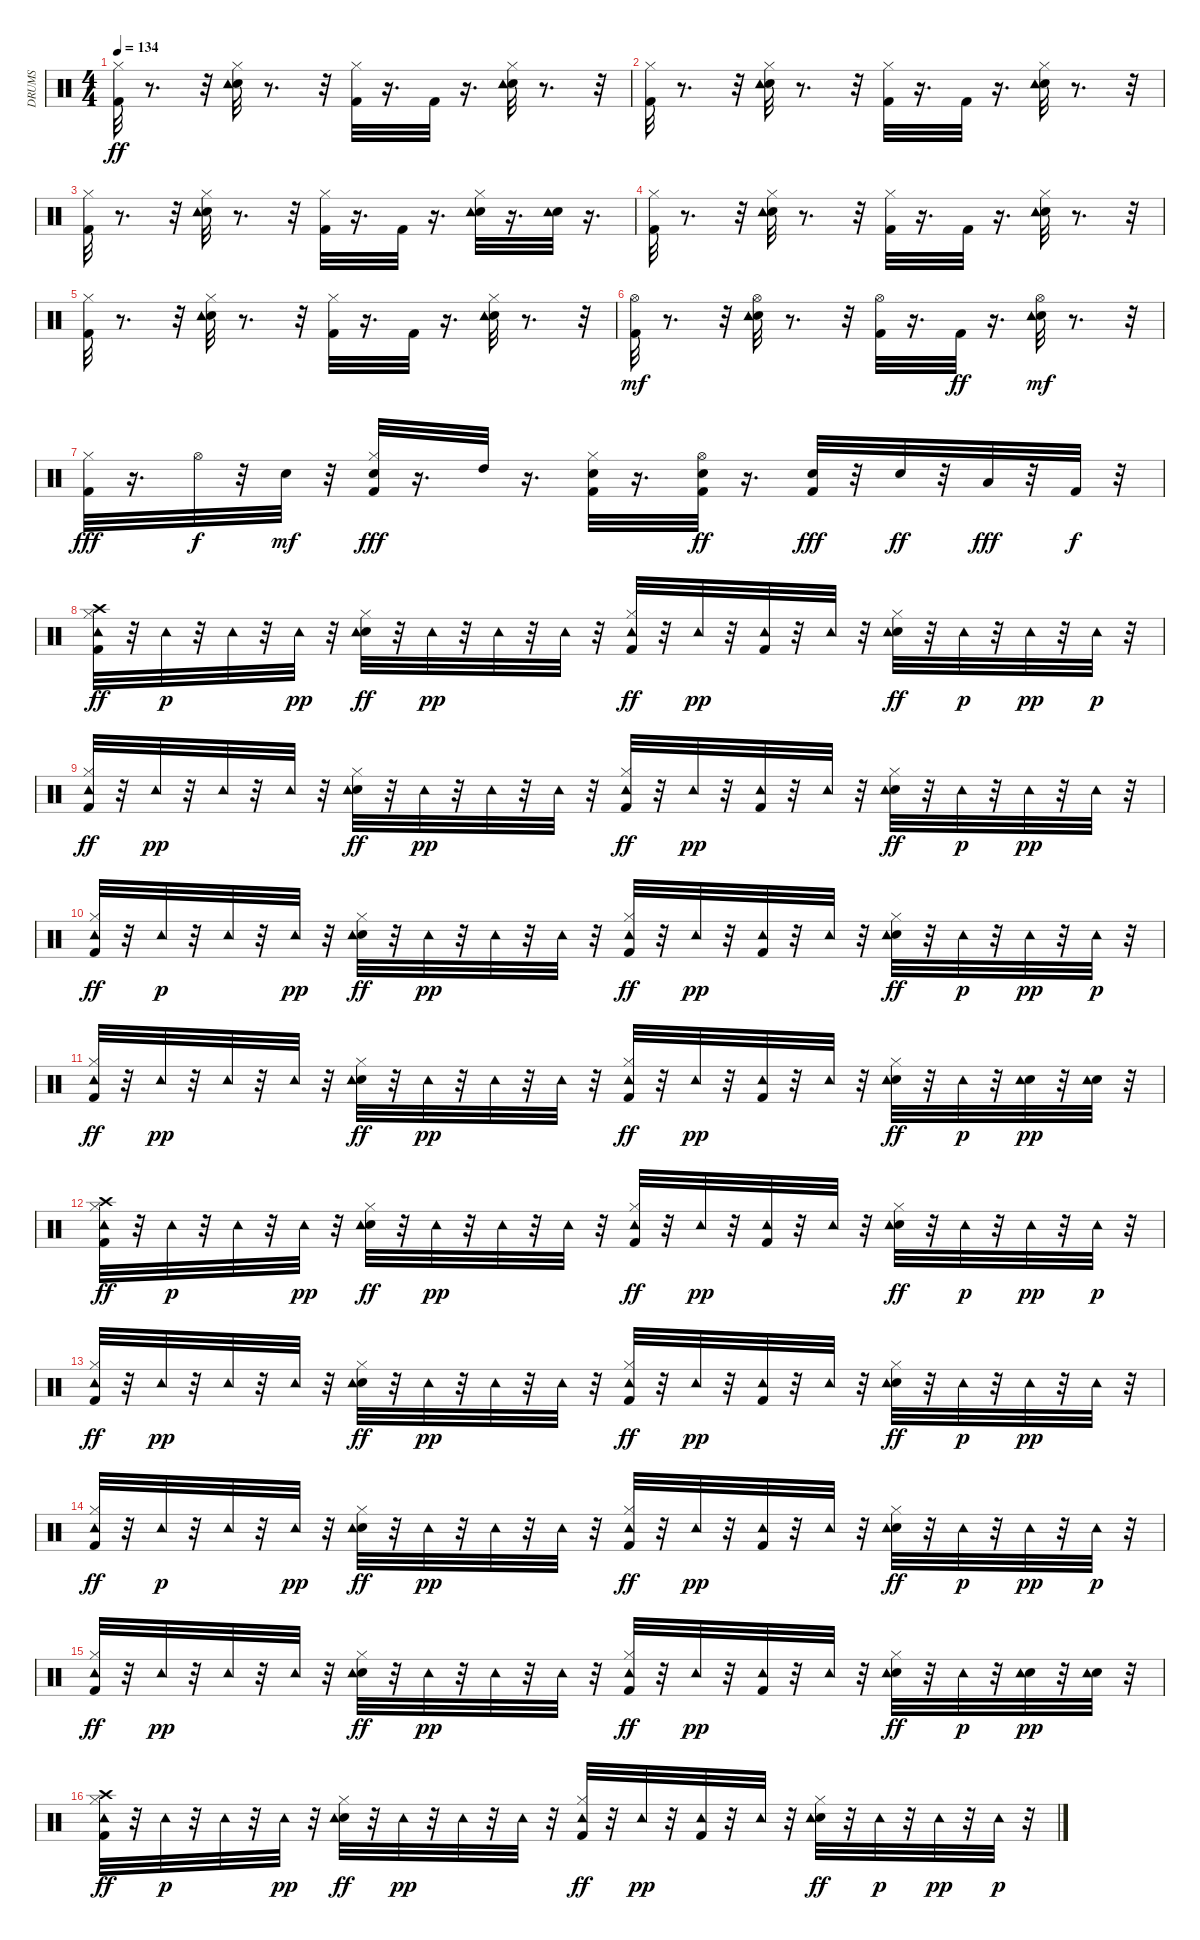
\track ("DRUMS" "DRUMS") {instrument percussion}
\staff {score}
\articulation defaults
\ts (4 4)
\tempo 134
\clef neutral
\ks c
("Kick (hit) 2" "Hi-Hat (closed)").32{dy ff} r.8{d} r.32 ("Snare (hit) 2" "Hi-Hat (closed)" "Tambourine (hit)").32 r.8{d} r.32 ("Kick (hit) 2" "Hi-Hat (closed)").32 r.16{d} "Kick (hit) 2".32 r.16{d} ("Snare (hit) 2" "Hi-Hat (closed)" "Tambourine (hit)").32 r.8{d} r.32 |
("Kick (hit) 2" "Hi-Hat (closed)").32 r.8{d} r.32 ("Snare (hit) 2" "Hi-Hat (closed)" "Tambourine (hit)").32 r.8{d} r.32 ("Kick (hit) 2" "Hi-Hat (closed)").32 r.16{d} "Kick (hit) 2".32 r.16{d} ("Snare (hit) 2" "Hi-Hat (closed)" "Tambourine (hit)").32 r.8{d} r.32 |
("Kick (hit) 2" "Hi-Hat (closed)").32 r.8{d} r.32 ("Snare (hit) 2" "Hi-Hat (closed)" "Tambourine (hit)").32 r.8{d} r.32 ("Kick (hit) 2" "Hi-Hat (closed)").32 r.16{d} "Kick (hit) 2".32 r.16{d} ("Snare (hit) 2" "Hi-Hat (closed)" "Tambourine (hit)").32 r.16{d} ("Snare (hit) 2" "Tambourine (hit)").32 r.16{d} |
("Kick (hit) 2" "Hi-Hat (closed)").32 r.8{d} r.32 ("Snare (hit) 2" "Hi-Hat (closed)" "Tambourine (hit)").32 r.8{d} r.32 ("Kick (hit) 2" "Hi-Hat (closed)").32 r.16{d} "Kick (hit) 2".32 r.16{d} ("Snare (hit) 2" "Hi-Hat (closed)" "Tambourine (hit)").32 r.8{d} r.32 |
("Kick (hit) 2" "Hi-Hat (closed)").32 r.8{d} r.32 ("Snare (hit) 2" "Hi-Hat (closed)" "Tambourine (hit)").32 r.8{d} r.32 ("Kick (hit) 2" "Hi-Hat (closed)").32 r.16{d} "Kick (hit) 2".32 r.16{d} ("Snare (hit) 2" "Hi-Hat (closed)" "Tambourine (hit)").32 r.8{d} r.32 |
("Kick (hit) 2" "Hi-Hat (open)").32{dy mf} r.8{d} r.32 ("Snare (hit) 2" "Hi-Hat (open)" "Tambourine (hit)").32 r.8{d} r.32 ("Kick (hit) 2" "Hi-Hat (open)").32 r.16{d} "Kick (hit) 2".32{dy ff} r.16{d} ("Snare (hit) 2" "Hi-Hat (open)" "Tambourine (hit)").32{dy mf} r.8{d} r.32 |
("Kick (hit) 2" "Hi-Hat (closed)").32{dy fff} r.16{d} "Hi-Hat (open)".32{dy f} r.32 "Snare (hit) 2".32{dy mf} r.32 ("Kick (hit) 2" "Snare (hit) 2" "Hi-Hat (closed)").32{dy fff} r.16{d} "High Tom (hit)".32 r.16{d} ("Kick (hit) 2" "Snare (hit) 2" "Hi-Hat (closed)").32 r.16{d} ("Kick (hit) 2" "Snare (hit) 2" "Hi-Hat (open)").32{dy ff} r.16{d} ("Kick (hit) 2" "Snare (hit) 2").32{dy fff} r.32 "Snare (hit) 2".32{dy ff} r.32 "Low Floor Tom (hit)".32{dy fff} r.32 "Kick (hit) 2".32{dy f} r.32 |
("Kick (hit) 2" "Hi-Hat (closed)" "Crash high (hit)" "Tambourine (hit)").32{dy ff} r.32 "Tambourine (hit)".32{dy p} r.32 "Tambourine (hit)".32 r.32 "Tambourine (hit)".32{dy pp} r.32 ("Snare (hit) 2" "Hi-Hat (closed)" "Tambourine (hit)").32{dy ff} r.32 "Tambourine (hit)".32{dy pp} r.32 "Tambourine (hit)".32 r.32 "Tambourine (hit)".32 r.32 ("Kick (hit) 2" "Hi-Hat (closed)" "Tambourine (hit)").32{dy ff} r.32 "Tambourine (hit)".32{dy pp} r.32 ("Kick (hit) 2" "Tambourine (hit)").32 r.32 "Tambourine (hit)".32 r.32 ("Snare (hit) 2" "Hi-Hat (closed)" "Tambourine (hit)").32{dy ff} r.32 "Tambourine (hit)".32{dy p} r.32 "Tambourine (hit)".32{dy pp} r.32 "Tambourine (hit)".32{dy p} r.32 |
("Kick (hit) 2" "Hi-Hat (closed)" "Tambourine (hit)").32{dy ff} r.32 "Tambourine (hit)".32{dy pp} r.32 "Tambourine (hit)".32 r.32 "Tambourine (hit)".32 r.32 ("Snare (hit) 2" "Hi-Hat (closed)" "Tambourine (hit)").32{dy ff} r.32 "Tambourine (hit)".32{dy pp} r.32 "Tambourine (hit)".32 r.32 "Tambourine (hit)".32 r.32 ("Kick (hit) 2" "Hi-Hat (closed)" "Tambourine (hit)").32{dy ff} r.32 "Tambourine (hit)".32{dy pp} r.32 ("Kick (hit) 2" "Tambourine (hit)").32 r.32 "Tambourine (hit)".32 r.32 ("Snare (hit) 2" "Hi-Hat (closed)" "Tambourine (hit)").32{dy ff} r.32 "Tambourine (hit)".32{dy p} r.32 "Tambourine (hit)".32{dy pp} r.32 "Tambourine (hit)".32 r.32 |
("Kick (hit) 2" "Hi-Hat (closed)" "Tambourine (hit)").32{dy ff} r.32 "Tambourine (hit)".32{dy p} r.32 "Tambourine (hit)".32 r.32 "Tambourine (hit)".32{dy pp} r.32 ("Snare (hit) 2" "Hi-Hat (closed)" "Tambourine (hit)").32{dy ff} r.32 "Tambourine (hit)".32{dy pp} r.32 "Tambourine (hit)".32 r.32 "Tambourine (hit)".32 r.32 ("Kick (hit) 2" "Hi-Hat (closed)" "Tambourine (hit)").32{dy ff} r.32 "Tambourine (hit)".32{dy pp} r.32 ("Kick (hit) 2" "Tambourine (hit)").32 r.32 "Tambourine (hit)".32 r.32 ("Snare (hit) 2" "Hi-Hat (closed)" "Tambourine (hit)").32{dy ff} r.32 "Tambourine (hit)".32{dy p} r.32 "Tambourine (hit)".32{dy pp} r.32 "Tambourine (hit)".32{dy p} r.32 |
("Kick (hit) 2" "Hi-Hat (closed)" "Tambourine (hit)").32{dy ff} r.32 "Tambourine (hit)".32{dy pp} r.32 "Tambourine (hit)".32 r.32 "Tambourine (hit)".32 r.32 ("Snare (hit) 2" "Hi-Hat (closed)" "Tambourine (hit)").32{dy ff} r.32 "Tambourine (hit)".32{dy pp} r.32 "Tambourine (hit)".32 r.32 "Tambourine (hit)".32 r.32 ("Kick (hit) 2" "Hi-Hat (closed)" "Tambourine (hit)").32{dy ff} r.32 "Tambourine (hit)".32{dy pp} r.32 ("Kick (hit) 2" "Tambourine (hit)").32 r.32 "Tambourine (hit)".32 r.32 ("Snare (hit) 2" "Hi-Hat (closed)" "Tambourine (hit)").32{dy ff} r.32 "Tambourine (hit)".32{dy p} r.32 ("Snare (hit) 2" "Tambourine (hit)").32{dy pp} r.32 ("Snare (hit) 2" "Tambourine (hit)").32 r.32 |
("Kick (hit) 2" "Hi-Hat (closed)" "Crash high (hit)" "Tambourine (hit)").32{dy ff} r.32 "Tambourine (hit)".32{dy p} r.32 "Tambourine (hit)".32 r.32 "Tambourine (hit)".32{dy pp} r.32 ("Snare (hit) 2" "Hi-Hat (closed)" "Tambourine (hit)").32{dy ff} r.32 "Tambourine (hit)".32{dy pp} r.32 "Tambourine (hit)".32 r.32 "Tambourine (hit)".32 r.32 ("Kick (hit) 2" "Hi-Hat (closed)" "Tambourine (hit)").32{dy ff} r.32 "Tambourine (hit)".32{dy pp} r.32 ("Kick (hit) 2" "Tambourine (hit)").32 r.32 "Tambourine (hit)".32 r.32 ("Snare (hit) 2" "Hi-Hat (closed)" "Tambourine (hit)").32{dy ff} r.32 "Tambourine (hit)".32{dy p} r.32 "Tambourine (hit)".32{dy pp} r.32 "Tambourine (hit)".32{dy p} r.32 |
("Kick (hit) 2" "Hi-Hat (closed)" "Tambourine (hit)").32{dy ff} r.32 "Tambourine (hit)".32{dy pp} r.32 "Tambourine (hit)".32 r.32 "Tambourine (hit)".32 r.32 ("Snare (hit) 2" "Hi-Hat (closed)" "Tambourine (hit)").32{dy ff} r.32 "Tambourine (hit)".32{dy pp} r.32 "Tambourine (hit)".32 r.32 "Tambourine (hit)".32 r.32 ("Kick (hit) 2" "Hi-Hat (closed)" "Tambourine (hit)").32{dy ff} r.32 "Tambourine (hit)".32{dy pp} r.32 ("Kick (hit) 2" "Tambourine (hit)").32 r.32 "Tambourine (hit)".32 r.32 ("Snare (hit) 2" "Hi-Hat (closed)" "Tambourine (hit)").32{dy ff} r.32 "Tambourine (hit)".32{dy p} r.32 "Tambourine (hit)".32{dy pp} r.32 "Tambourine (hit)".32 r.32 |
("Kick (hit) 2" "Hi-Hat (closed)" "Tambourine (hit)").32{dy ff} r.32 "Tambourine (hit)".32{dy p} r.32 "Tambourine (hit)".32 r.32 "Tambourine (hit)".32{dy pp} r.32 ("Snare (hit) 2" "Hi-Hat (closed)" "Tambourine (hit)").32{dy ff} r.32 "Tambourine (hit)".32{dy pp} r.32 "Tambourine (hit)".32 r.32 "Tambourine (hit)".32 r.32 ("Kick (hit) 2" "Hi-Hat (closed)" "Tambourine (hit)").32{dy ff} r.32 "Tambourine (hit)".32{dy pp} r.32 ("Kick (hit) 2" "Tambourine (hit)").32 r.32 "Tambourine (hit)".32 r.32 ("Snare (hit) 2" "Hi-Hat (closed)" "Tambourine (hit)").32{dy ff} r.32 "Tambourine (hit)".32{dy p} r.32 "Tambourine (hit)".32{dy pp} r.32 "Tambourine (hit)".32{dy p} r.32 |
("Kick (hit) 2" "Hi-Hat (closed)" "Tambourine (hit)").32{dy ff} r.32 "Tambourine (hit)".32{dy pp} r.32 "Tambourine (hit)".32 r.32 "Tambourine (hit)".32 r.32 ("Snare (hit) 2" "Hi-Hat (closed)" "Tambourine (hit)").32{dy ff} r.32 "Tambourine (hit)".32{dy pp} r.32 "Tambourine (hit)".32 r.32 "Tambourine (hit)".32 r.32 ("Kick (hit) 2" "Hi-Hat (closed)" "Tambourine (hit)").32{dy ff} r.32 "Tambourine (hit)".32{dy pp} r.32 ("Kick (hit) 2" "Tambourine (hit)").32 r.32 "Tambourine (hit)".32 r.32 ("Snare (hit) 2" "Hi-Hat (closed)" "Tambourine (hit)").32{dy ff} r.32 "Tambourine (hit)".32{dy p} r.32 ("Snare (hit) 2" "Tambourine (hit)").32{dy pp} r.32 ("Snare (hit) 2" "Tambourine (hit)").32 r.32 |
("Kick (hit) 2" "Hi-Hat (closed)" "Crash high (hit)" "Tambourine (hit)").32{dy ff} r.32 "Tambourine (hit)".32{dy p} r.32 "Tambourine (hit)".32 r.32 "Tambourine (hit)".32{dy pp} r.32 ("Snare (hit) 2" "Hi-Hat (closed)" "Tambourine (hit)").32{dy ff} r.32 "Tambourine (hit)".32{dy pp} r.32 "Tambourine (hit)".32 r.32 "Tambourine (hit)".32 r.32 ("Kick (hit) 2" "Hi-Hat (closed)" "Tambourine (hit)").32{dy ff} r.32 "Tambourine (hit)".32{dy pp} r.32 ("Kick (hit) 2" "Tambourine (hit)").32 r.32 "Tambourine (hit)".32 r.32 ("Snare (hit) 2" "Hi-Hat (closed)" "Tambourine (hit)").32{dy ff} r.32 "Tambourine (hit)".32{dy p} r.32 "Tambourine (hit)".32{dy pp} r.32 "Tambourine (hit)".32{dy p} r.32
